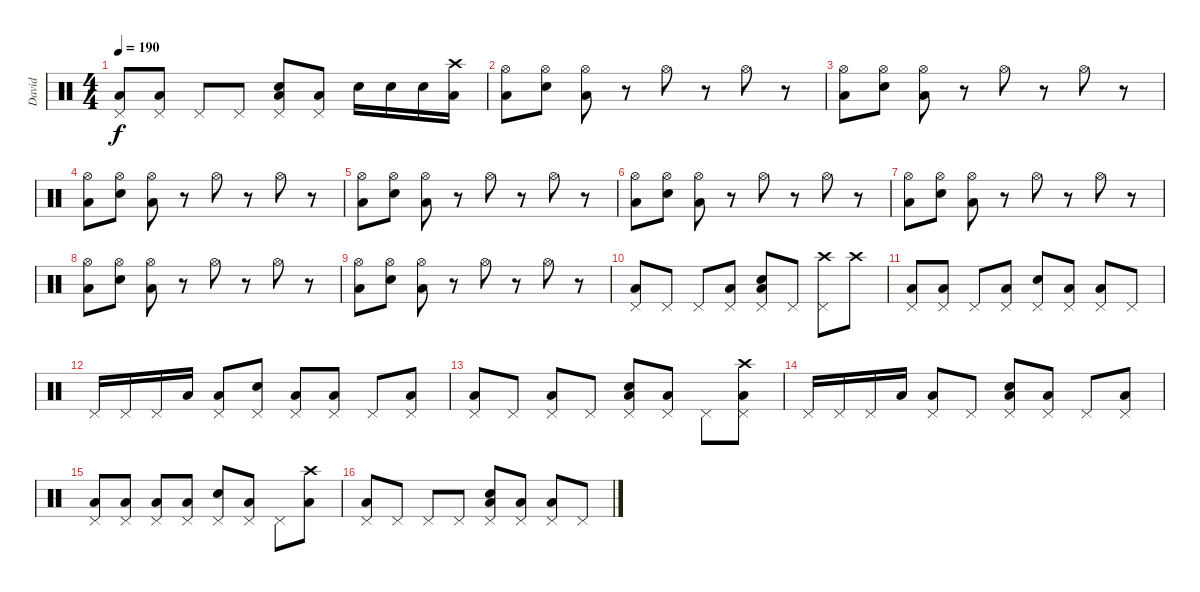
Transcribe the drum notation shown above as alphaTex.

\track ("David" "David") {instrument percussion}
\staff {score}
\articulation defaults
\ts (4 4)
\tempo 190
\clef neutral
\ks c
("Pedal Hi-Hat (hit)" "Low Tom (hit)").8{dy f} ("Pedal Hi-Hat (hit)" "Low Tom (hit)").8 "Pedal Hi-Hat (hit)".8 "Pedal Hi-Hat (hit)".8 ("Pedal Hi-Hat (hit)" "Electric Snare (hit)" "Low Tom (hit)").8 ("Pedal Hi-Hat (hit)" "Low Tom (hit)").8 "Electric Snare (hit)".16 "Electric Snare (hit)".16 "Electric Snare (hit)".16 ("Crash high (hit)" "Low Tom (hit)").16 |
("Hi-Hat (open)" "Low Tom (hit)").8 ("Hi-Hat (open)" "Electric Snare (hit)").8 ("Hi-Hat (open)" "Low Tom (hit)").8 r.8 "Hi-Hat (open)".8 r.8 "Hi-Hat (open)".8 r.8 |
("Hi-Hat (open)" "Low Tom (hit)").8 ("Hi-Hat (open)" "Electric Snare (hit)").8 ("Hi-Hat (open)" "Low Tom (hit)").8 r.8 "Hi-Hat (open)".8 r.8 "Hi-Hat (open)".8 r.8 |
("Hi-Hat (open)" "Low Tom (hit)").8 ("Hi-Hat (open)" "Electric Snare (hit)").8 ("Hi-Hat (open)" "Low Tom (hit)").8 r.8 "Hi-Hat (open)".8 r.8 "Hi-Hat (open)".8 r.8 |
("Hi-Hat (open)" "Low Tom (hit)").8 ("Hi-Hat (open)" "Electric Snare (hit)").8 ("Hi-Hat (open)" "Low Tom (hit)").8 r.8 "Hi-Hat (open)".8 r.8 "Hi-Hat (open)".8 r.8 |
("Hi-Hat (open)" "Low Tom (hit)").8 ("Hi-Hat (open)" "Electric Snare (hit)").8 ("Hi-Hat (open)" "Low Tom (hit)").8 r.8 "Hi-Hat (open)".8 r.8 "Hi-Hat (open)".8 r.8 |
("Hi-Hat (open)" "Low Tom (hit)").8 ("Hi-Hat (open)" "Electric Snare (hit)").8 ("Hi-Hat (open)" "Low Tom (hit)").8 r.8 "Hi-Hat (open)".8 r.8 "Hi-Hat (open)".8 r.8 |
("Hi-Hat (open)" "Low Tom (hit)").8 ("Hi-Hat (open)" "Electric Snare (hit)").8 ("Hi-Hat (open)" "Low Tom (hit)").8 r.8 "Hi-Hat (open)".8 r.8 "Hi-Hat (open)".8 r.8 |
("Hi-Hat (open)" "Low Tom (hit)").8 ("Hi-Hat (open)" "Electric Snare (hit)").8 ("Hi-Hat (open)" "Low Tom (hit)").8 r.8 "Hi-Hat (open)".8 r.8 "Hi-Hat (open)".8 r.8 |
("Pedal Hi-Hat (hit)" "Low Tom (hit)").8 "Pedal Hi-Hat (hit)".8 "Pedal Hi-Hat (hit)".8 ("Pedal Hi-Hat (hit)" "Low Tom (hit)").8 ("Pedal Hi-Hat (hit)" "Electric Snare (hit)" "Low Tom (hit)").8 "Pedal Hi-Hat (hit)".8 ("Crash high (hit)" "Pedal Hi-Hat (hit)").8 "Crash high (hit)".8 |
("Pedal Hi-Hat (hit)" "Low Tom (hit)").8 ("Pedal Hi-Hat (hit)" "Low Tom (hit)").8 "Pedal Hi-Hat (hit)".8 ("Pedal Hi-Hat (hit)" "Low Tom (hit)").8 ("Pedal Hi-Hat (hit)" "Electric Snare (hit)").8 ("Pedal Hi-Hat (hit)" "Low Tom (hit)").8 ("Pedal Hi-Hat (hit)" "Low Tom (hit)").8 "Pedal Hi-Hat (hit)".8 |
"Pedal Hi-Hat (hit)".16 "Pedal Hi-Hat (hit)".16 "Pedal Hi-Hat (hit)".16 "Low Tom (hit)".16 ("Pedal Hi-Hat (hit)" "Low Tom (hit)").8 ("Pedal Hi-Hat (hit)" "Electric Snare (hit)").8 ("Pedal Hi-Hat (hit)" "Low Tom (hit)").8 ("Pedal Hi-Hat (hit)" "Low Tom (hit)").8 "Pedal Hi-Hat (hit)".8 ("Pedal Hi-Hat (hit)" "Low Tom (hit)").8 |
("Pedal Hi-Hat (hit)" "Low Tom (hit)").8 "Pedal Hi-Hat (hit)".8 ("Pedal Hi-Hat (hit)" "Low Tom (hit)").8 "Pedal Hi-Hat (hit)".8 ("Pedal Hi-Hat (hit)" "Electric Snare (hit)" "Low Tom (hit)").8 ("Pedal Hi-Hat (hit)" "Low Tom (hit)").8 "Pedal Hi-Hat (hit)".8 ("Crash high (hit)" "Pedal Hi-Hat (hit)" "Low Tom (hit)").8 |
"Pedal Hi-Hat (hit)".16 "Pedal Hi-Hat (hit)".16 "Pedal Hi-Hat (hit)".16 "Low Tom (hit)".16 ("Pedal Hi-Hat (hit)" "Low Tom (hit)").8 "Pedal Hi-Hat (hit)".8 ("Pedal Hi-Hat (hit)" "Electric Snare (hit)" "Low Tom (hit)").8 ("Pedal Hi-Hat (hit)" "Low Tom (hit)").8 "Pedal Hi-Hat (hit)".8 ("Pedal Hi-Hat (hit)" "Low Tom (hit)").8 |
("Pedal Hi-Hat (hit)" "Low Tom (hit)").8 ("Pedal Hi-Hat (hit)" "Low Tom (hit)").8 ("Pedal Hi-Hat (hit)" "Low Tom (hit)").8 ("Pedal Hi-Hat (hit)" "Low Tom (hit)").8 ("Pedal Hi-Hat (hit)" "Electric Snare (hit)").8 ("Pedal Hi-Hat (hit)" "Low Tom (hit)").8 "Pedal Hi-Hat (hit)".8 ("Crash high (hit)" "Low Tom (hit)").8 |
("Pedal Hi-Hat (hit)" "Low Tom (hit)").8 "Pedal Hi-Hat (hit)".8 "Pedal Hi-Hat (hit)".8 "Pedal Hi-Hat (hit)".8 ("Pedal Hi-Hat (hit)" "Electric Snare (hit)" "Low Tom (hit)").8 ("Pedal Hi-Hat (hit)" "Low Tom (hit)").8 ("Pedal Hi-Hat (hit)" "Low Tom (hit)").8 "Pedal Hi-Hat (hit)".8
